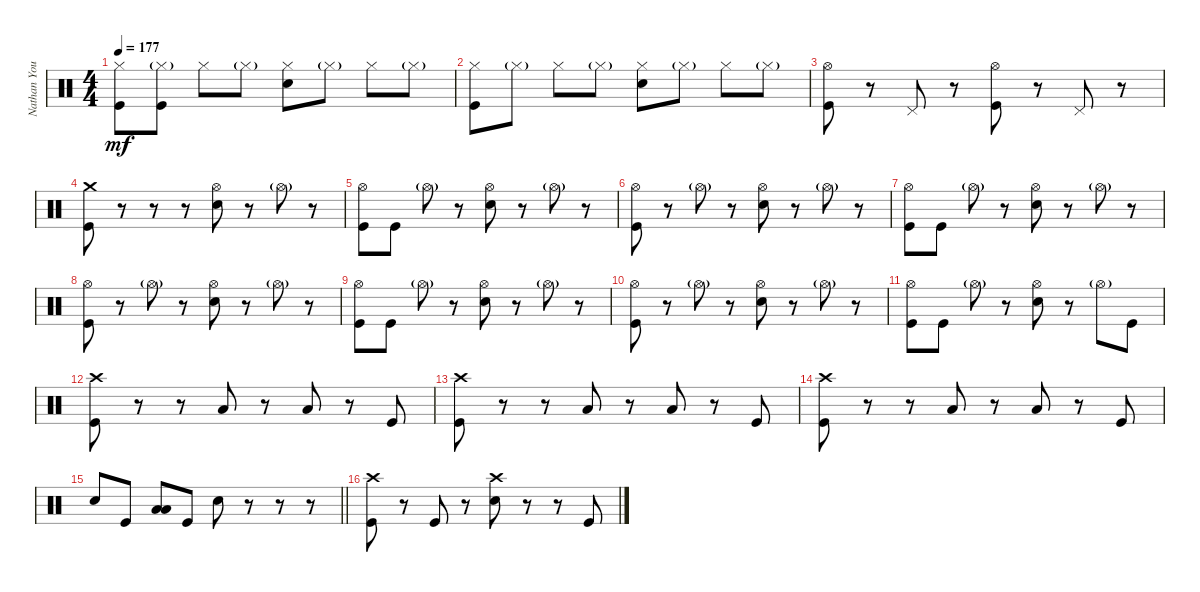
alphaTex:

\track ("Nathan Young" "Nathan You") {instrument percussion}
\staff {score}
\articulation defaults
\ts (4 4)
\tempo 177
\clef neutral
\ks c
("Hi-Hat (closed)" "Kick (hit)").8{dy mf} ("Hi-Hat (closed)"{g} "Kick (hit)").8 "Hi-Hat (closed)".8 "Hi-Hat (closed)"{g}.8 ("Hi-Hat (closed)" "Snare (hit) 2").8 "Hi-Hat (closed)"{g}.8 "Hi-Hat (closed)".8 "Hi-Hat (closed)"{g}.8 |
("Hi-Hat (closed)" "Kick (hit)").8 "Hi-Hat (closed)"{g}.8 "Hi-Hat (closed)".8 "Hi-Hat (closed)"{g}.8 ("Hi-Hat (closed)" "Snare (hit) 2").8 "Hi-Hat (closed)"{g}.8 "Hi-Hat (closed)".8 "Hi-Hat (closed)"{g}.8 |
("Hi-Hat (open)" "Kick (hit)").8 r.8 "Pedal Hi-Hat (hit)".8 r.8 ("Hi-Hat (open)" "Kick (hit)").8 r.8 "Pedal Hi-Hat (hit)".8 r.8 |
("Crash medium (hit)" "Kick (hit)").8 r.8 r.8 r.8 ("Hi-Hat (open)" "Snare (hit) 2").8 r.8 "Hi-Hat (open)"{g}.8 r.8 |
("Hi-Hat (open)" "Kick (hit)").8 "Kick (hit)".8 "Hi-Hat (open)"{g}.8 r.8 ("Hi-Hat (open)" "Snare (hit) 2").8 r.8 "Hi-Hat (open)"{g}.8 r.8 |
("Hi-Hat (open)" "Kick (hit)").8 r.8 "Hi-Hat (open)"{g}.8 r.8 ("Hi-Hat (open)" "Snare (hit) 2").8 r.8 "Hi-Hat (open)"{g}.8 r.8 |
("Hi-Hat (open)" "Kick (hit)").8 "Kick (hit)".8 "Hi-Hat (open)"{g}.8 r.8 ("Hi-Hat (open)" "Snare (hit) 2").8 r.8 "Hi-Hat (open)"{g}.8 r.8 |
("Hi-Hat (open)" "Kick (hit)").8 r.8 "Hi-Hat (open)"{g}.8 r.8 ("Hi-Hat (open)" "Snare (hit) 2").8 r.8 "Hi-Hat (open)"{g}.8 r.8 |
("Hi-Hat (open)" "Kick (hit)").8 "Kick (hit)".8 "Hi-Hat (open)"{g}.8 r.8 ("Hi-Hat (open)" "Snare (hit) 2").8 r.8 "Hi-Hat (open)"{g}.8 r.8 |
("Hi-Hat (open)" "Kick (hit)").8 r.8 "Hi-Hat (open)"{g}.8 r.8 ("Hi-Hat (open)" "Snare (hit) 2").8 r.8 "Hi-Hat (open)"{g}.8 r.8 |
("Hi-Hat (open)" "Kick (hit)").8 "Kick (hit)".8 "Hi-Hat (open)"{g}.8 r.8 ("Hi-Hat (open)" "Snare (hit) 2").8 r.8 "Hi-Hat (open)"{g}.8 "Kick (hit)".8 |
("Crash high (hit)" "Kick (hit)").8 r.8 r.8 "Low Tom (hit)".8 r.8 "Low Floor Tom (hit)".8 r.8 "Kick (hit)".8 |
("Crash high (hit)" "Kick (hit)").8 r.8 r.8 "Low Tom (hit)".8 r.8 "Low Floor Tom (hit)".8 r.8 "Kick (hit)".8 |
("Crash high (hit)" "Kick (hit)").8 r.8 r.8 "Low Tom (hit)".8 r.8 "Low Floor Tom (hit)".8 r.8 "Kick (hit)".8 |
\barLineRight lightlight "Snare (hit) 2".8 "Kick (hit)".8
("Low Tom (hit)" "Low Floor Tom (hit)").8 "Kick (hit)".8 "Snare (hit) 2".8 r.8 r.8 r.8 |
("Crash high (hit)" "Kick (hit)").8 r.8 "Kick (hit)".8 r.8 ("Crash high (hit)" "Snare (hit) 2").8 r.8 r.8 "Kick (hit)".8
